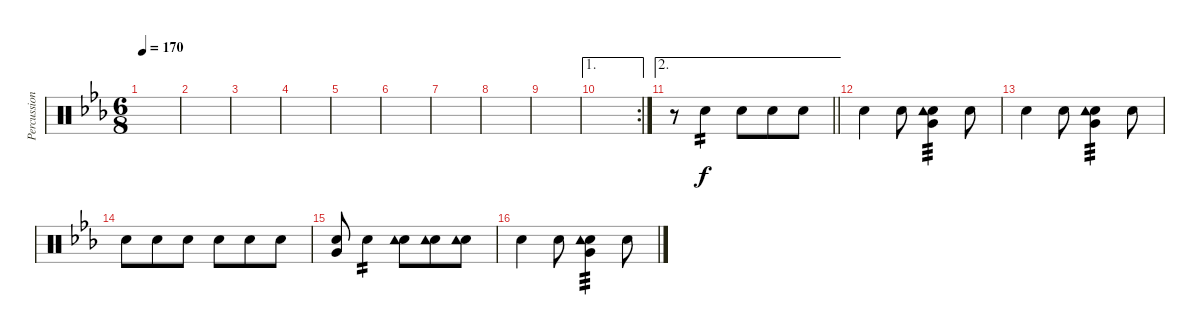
\track ("Percussioni" "Percussion") {instrument percussion}
\staff {score}
\articulation defaults
\ts (6 8)
\tempo 170
\clef neutral
\ks eb
|
|
|
|
|
|
|
|
|
\ae 1
\rc 2
|
\ae 2
\barLineRight lightlight
r.8 "Electric Snare (hit)".4{tp 2} "Electric Snare (hit)".8 "Electric Snare (hit)".8 "Electric Snare (hit)".8 |
"Electric Snare (hit)".4 "Electric Snare (hit)".8 ("Very Low Tom (hit)" "Electric Snare (hit)" "Tambourine (hit)").4{tp 3} "Electric Snare (hit)".8 |
"Electric Snare (hit)".4 "Electric Snare (hit)".8 ("Very Low Tom (hit)" "Electric Snare (hit)" "Tambourine (hit)").4{tp 3} "Electric Snare (hit)".8 |
"Electric Snare (hit)".8 "Electric Snare (hit)".8 "Electric Snare (hit)".8 "Electric Snare (hit)".8 "Electric Snare (hit)".8 "Electric Snare (hit)".8 |
("Very Low Tom (hit)" "Electric Snare (hit)").8 "Electric Snare (hit)".4{tp 2} ("Electric Snare (hit)" "Tambourine (hit)").8 ("Electric Snare (hit)" "Tambourine (hit)").8 ("Electric Snare (hit)" "Tambourine (hit)").8 |
"Electric Snare (hit)".4 "Electric Snare (hit)".8 ("Very Low Tom (hit)" "Electric Snare (hit)" "Tambourine (hit)").4{tp 3} "Electric Snare (hit)".8
